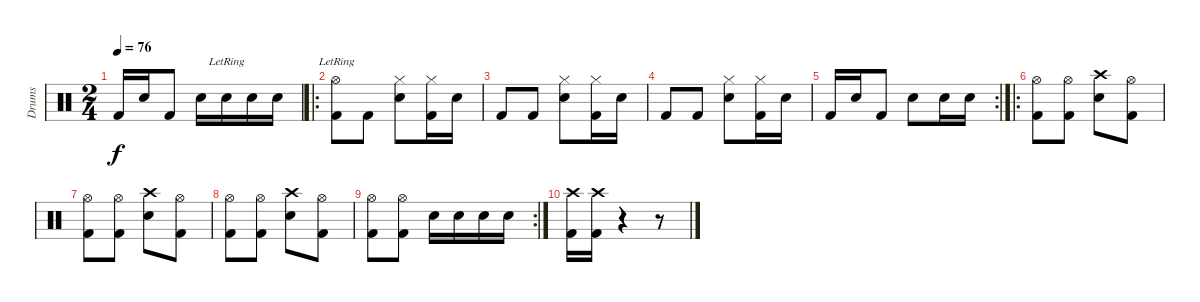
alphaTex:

\track ("Drums" "Drums") {instrument percussion}
\staff {score}
\articulation defaults
\ts (2 4)
\tempo 76
\clef neutral
\ks c "Kick (hit) 2".16{dy f} "Electric Snare (hit)".16 "Kick (hit) 2".8 "Electric Snare (hit)".16 "Electric Snare (hit)"{lr}.16 "Electric Snare (hit)".16 "Electric Snare (hit)".16
|
\ro
("Kick (hit) 2" "Hi-Hat (open)"{lr}).8 "Kick (hit) 2".8 ("Electric Snare (hit)" "Hi-Hat (closed)").8 ("Kick (hit) 2" "Hi-Hat (closed)").16 "Electric Snare (hit)".16 |
"Kick (hit) 2".8 "Kick (hit) 2".8 ("Electric Snare (hit)" "Hi-Hat (closed)").8 ("Kick (hit) 2" "Hi-Hat (closed)").16 "Electric Snare (hit)".16 |
"Kick (hit) 2".8 "Kick (hit) 2".8 ("Electric Snare (hit)" "Hi-Hat (closed)").8 ("Kick (hit) 2" "Hi-Hat (closed)").16 "Electric Snare (hit)".16 |
\rc 2 "Kick (hit) 2".16 "Electric Snare (hit)".16 "Kick (hit) 2".8 "Electric Snare (hit)".8 "Electric Snare (hit)".16 "Electric Snare (hit)".16
|
\ro
("Kick (hit) 2" "Hi-Hat (open)").8 ("Kick (hit) 2" "Hi-Hat (open)").8 ("Electric Snare (hit)" "Crash high (hit)").8 ("Kick (hit) 2" "Hi-Hat (open)").8 |
("Kick (hit) 2" "Hi-Hat (open)").8 ("Kick (hit) 2" "Hi-Hat (open)").8 ("Electric Snare (hit)" "Crash high (hit)").8 ("Kick (hit) 2" "Hi-Hat (open)").8 |
("Kick (hit) 2" "Hi-Hat (open)").8 ("Kick (hit) 2" "Hi-Hat (open)").8 ("Electric Snare (hit)" "Crash high (hit)").8 ("Kick (hit) 2" "Hi-Hat (open)").8 |
\rc 2
("Kick (hit) 2" "Hi-Hat (open)").8 ("Kick (hit) 2" "Hi-Hat (open)").8 "Electric Snare (hit)".16 "Electric Snare (hit)".16 "Electric Snare (hit)".16 "Electric Snare (hit)".16 |
("Kick (hit) 2" "Crash high (hit)").16 ("Kick (hit) 2" "Crash high (hit)").16 r.4 r.8
